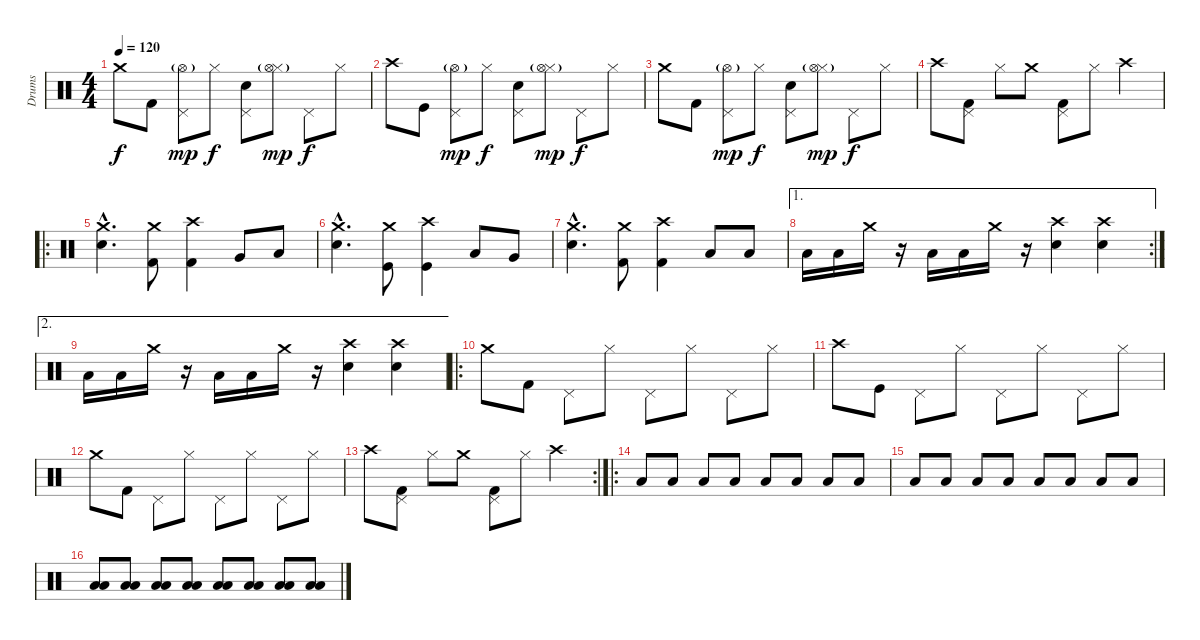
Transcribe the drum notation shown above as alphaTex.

\track ("Drums" "Drums") {instrument percussion}
\staff {score}
\articulation defaults
\ts (4 4)
\tempo 120
\clef neutral
\ks c "Crash medium (hit)".8{dy f} "Kick (hit) 2".8
("Pedal Hi-Hat (hit)" "Hi-Hat (open)"{g}).8{dy mp} "Hi-Hat (closed)".8{dy f} ("Pedal Hi-Hat (hit)" "Electric Snare (hit)").8 ("Hi-Hat (closed)" "Hi-Hat (open)"{g}).8{dy mp} "Pedal Hi-Hat (hit)".8{dy f} "Hi-Hat (closed)".8 |
"Crash high (hit)".8 "Kick (hit)".8 ("Pedal Hi-Hat (hit)" "Hi-Hat (open)"{g}).8{dy mp} "Hi-Hat (closed)".8{dy f} ("Pedal Hi-Hat (hit)" "Electric Snare (hit)").8 ("Hi-Hat (closed)" "Hi-Hat (open)"{g}).8{dy mp} "Pedal Hi-Hat (hit)".8{dy f} "Hi-Hat (closed)".8 |
"Crash medium (hit)".8 "Kick (hit) 2".8 ("Pedal Hi-Hat (hit)" "Hi-Hat (open)"{g}).8{dy mp} "Hi-Hat (closed)".8{dy f} ("Pedal Hi-Hat (hit)" "Electric Snare (hit)").8 ("Hi-Hat (closed)" "Hi-Hat (open)"{g}).8{dy mp} "Pedal Hi-Hat (hit)".8{dy f} "Hi-Hat (closed)".8 |
"Crash high (hit)".8 ("Kick (hit) 2" "Pedal Hi-Hat (hit)").8 "Hi-Hat (closed)".8 "Crash medium (hit)".8 ("Kick (hit) 2" "Pedal Hi-Hat (hit)").8 "Hi-Hat (closed)".8 "Crash high (hit)".4 |
\ro
("Electric Snare (hit)"{hac} "Crash medium (hit)"{hac}).4{d} ("Kick (hit) 2" "Crash medium (hit)").8 ("Kick (hit) 2" "Crash high (hit)").4 "Very Low Tom (hit)".8 "Low Tom (hit)".8 |
("Electric Snare (hit)"{hac} "Crash medium (hit)"{hac}).4{d} ("Kick (hit)" "Crash medium (hit)").8 ("Kick (hit)" "Crash high (hit)").4 "Low Tom (hit)".8 "Very Low Tom (hit)".8 |
("Electric Snare (hit)"{hac} "Crash medium (hit)"{hac}).4{d} ("Kick (hit) 2" "Crash medium (hit)").8 ("Kick (hit) 2" "Crash high (hit)").4 "Low Tom (hit)".8 "Low Tom (hit)".8 |
\ae 1
\rc 2 "Low Floor Tom (hit)".16 "Low Floor Tom (hit)".16 "Crash medium (hit)".16
r.16 "Low Floor Tom (hit)".16 "Low Floor Tom (hit)".16 "Crash medium (hit)".16 r.16 ("Electric Snare (hit)" "Crash high (hit)").4 ("Electric Snare (hit)" "Crash high (hit)").4 |
\ae 2 "Low Floor Tom (hit)".16 "Low Floor Tom (hit)".16 "Crash medium (hit)".16
r.16 "Low Floor Tom (hit)".16 "Low Floor Tom (hit)".16 "Crash medium (hit)".16 r.16 ("Electric Snare (hit)" "Crash high (hit)").4 ("Electric Snare (hit)" "Crash high (hit)").4 |
\ro "Crash medium (hit)".8 "Kick (hit) 2".8 "Pedal Hi-Hat (hit)".8 "Hi-Hat (closed)".8 "Pedal Hi-Hat (hit)".8 "Hi-Hat (closed)".8 "Pedal Hi-Hat (hit)".8 "Hi-Hat (closed)".8
|
"Crash high (hit)".8 "Kick (hit)".8 "Pedal Hi-Hat (hit)".8 "Hi-Hat (closed)".8 "Pedal Hi-Hat (hit)".8 "Hi-Hat (closed)".8 "Pedal Hi-Hat (hit)".8 "Hi-Hat (closed)".8 |
"Crash medium (hit)".8 "Kick (hit) 2".8 "Pedal Hi-Hat (hit)".8 "Hi-Hat (closed)".8 "Pedal Hi-Hat (hit)".8 "Hi-Hat (closed)".8 "Pedal Hi-Hat (hit)".8 "Hi-Hat (closed)".8 |
\rc 2 "Crash high (hit)".8
("Kick (hit) 2" "Pedal Hi-Hat (hit)").8 "Hi-Hat (closed)".8 "Crash medium (hit)".8 ("Kick (hit) 2" "Pedal Hi-Hat (hit)").8 "Hi-Hat (closed)".8 "Crash high (hit)".4 |
\ro "Low Floor Tom (hit)".8 "Low Floor Tom (hit)".8 "Low Floor Tom (hit)".8 "Low Floor Tom (hit)".8 "Low Floor Tom (hit)".8 "Low Floor Tom (hit)".8 "Low Floor Tom (hit)".8 "Low Floor Tom (hit)".8
|
"Low Tom (hit)".8 "Low Tom (hit)".8 "Low Tom (hit)".8 "Low Tom (hit)".8 "Low Tom (hit)".8 "Low Tom (hit)".8 "Low Tom (hit)".8 "Low Tom (hit)".8 |
("Low Tom (hit)" "Low Tom (hit)").8 ("Low Tom (hit)" "Low Tom (hit)").8 ("Low Tom (hit)" "Low Tom (hit)").8 ("Low Tom (hit)" "Low Tom (hit)").8 ("Low Tom (hit)" "Low Tom (hit)").8 ("Low Tom (hit)" "Low Tom (hit)").8 ("Low Tom (hit)" "Low Tom (hit)").8 ("Low Tom (hit)" "Low Tom (hit)").8
